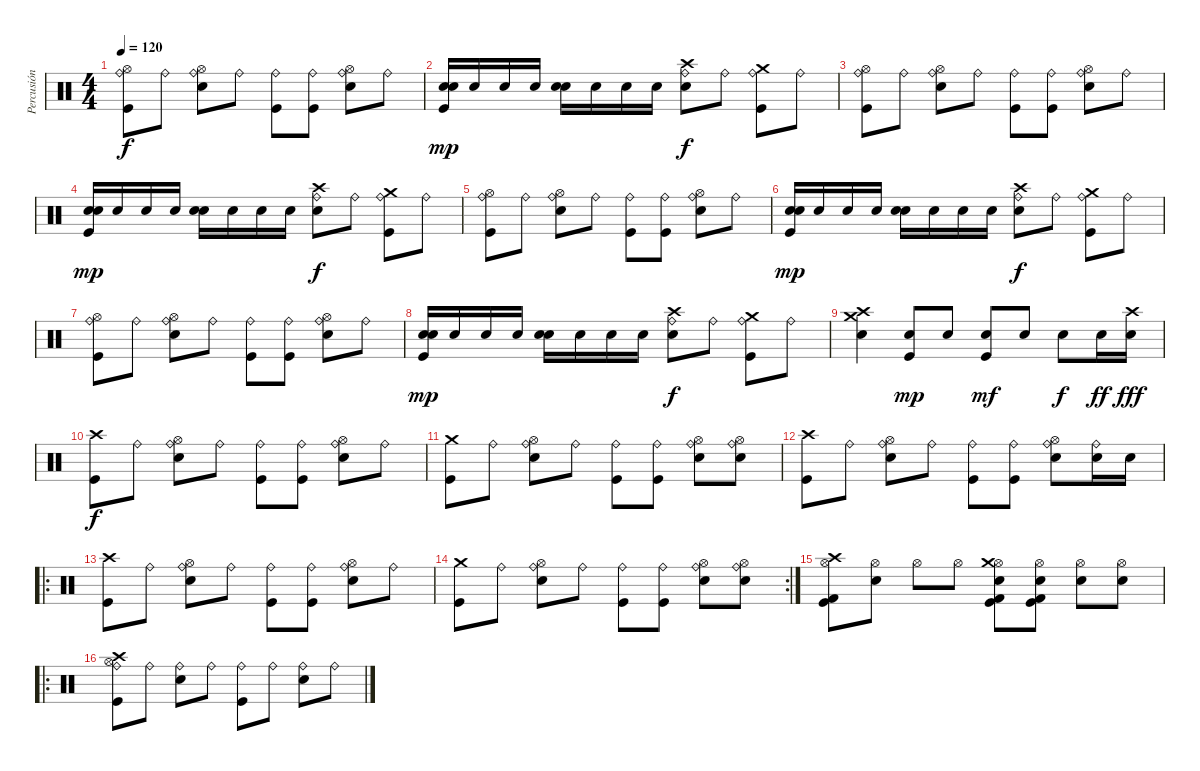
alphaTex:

\track ("Percusión" "Percusión") {instrument percussion}
\staff {score}
\articulation defaults
\ts (4 4)
\tempo 120
\clef neutral
\ks c
("Ride (bell)" "Hi-Hat (open)" "Kick (hit)").8{dy f} "Ride (bell)".8 ("Ride (bell)" "Hi-Hat (open)" "Snare (hit) 2").8 "Ride (bell)".8 ("Ride (bell)" "Kick (hit)").8 ("Ride (bell)" "Kick (hit)").8 ("Ride (bell)" "Hi-Hat (open)" "Snare (hit) 2").8 "Ride (bell)".8 |
("Snare (hit) 2" "Electric Snare (hit)" "Kick (hit)").16{dy mp} "Snare (hit) 2".16 "Snare (hit) 2".16 "Snare (hit) 2".16 ("Snare (hit) 2" "Electric Snare (hit)").16 "Snare (hit) 2".16 "Snare (hit) 2".16 "Snare (hit) 2".16 ("Ride (bell)" "Snare (hit) 2" "Crash high (hit)").8{dy f} "Ride (bell)".8 ("Ride (bell)" "Crash medium (hit)" "Kick (hit)").8 "Ride (bell)".8 |
("Ride (bell)" "Hi-Hat (open)" "Kick (hit)").8 "Ride (bell)".8 ("Ride (bell)" "Hi-Hat (open)" "Snare (hit) 2").8 "Ride (bell)".8 ("Ride (bell)" "Kick (hit)").8 ("Ride (bell)" "Kick (hit)").8 ("Ride (bell)" "Hi-Hat (open)" "Snare (hit) 2").8 "Ride (bell)".8 |
("Snare (hit) 2" "Electric Snare (hit)" "Kick (hit)").16{dy mp} "Snare (hit) 2".16 "Snare (hit) 2".16 "Snare (hit) 2".16 ("Snare (hit) 2" "Electric Snare (hit)").16 "Snare (hit) 2".16 "Snare (hit) 2".16 "Snare (hit) 2".16 ("Ride (bell)" "Snare (hit) 2" "Crash high (hit)").8{dy f} "Ride (bell)".8 ("Ride (bell)" "Crash medium (hit)" "Kick (hit)").8 "Ride (bell)".8 |
("Ride (bell)" "Hi-Hat (open)" "Kick (hit)").8 "Ride (bell)".8 ("Ride (bell)" "Hi-Hat (open)" "Snare (hit) 2").8 "Ride (bell)".8 ("Ride (bell)" "Kick (hit)").8 ("Ride (bell)" "Kick (hit)").8 ("Ride (bell)" "Hi-Hat (open)" "Snare (hit) 2").8 "Ride (bell)".8 |
("Snare (hit) 2" "Electric Snare (hit)" "Kick (hit)").16{dy mp} "Snare (hit) 2".16 "Snare (hit) 2".16 "Snare (hit) 2".16 ("Snare (hit) 2" "Electric Snare (hit)").16 "Snare (hit) 2".16 "Snare (hit) 2".16 "Snare (hit) 2".16 ("Ride (bell)" "Snare (hit) 2" "Crash high (hit)").8{dy f} "Ride (bell)".8 ("Ride (bell)" "Crash medium (hit)" "Kick (hit)").8 "Ride (bell)".8 |
("Ride (bell)" "Hi-Hat (open)" "Kick (hit)").8 "Ride (bell)".8 ("Ride (bell)" "Hi-Hat (open)" "Snare (hit) 2").8 "Ride (bell)".8 ("Ride (bell)" "Kick (hit)").8 ("Ride (bell)" "Kick (hit)").8 ("Ride (bell)" "Hi-Hat (open)" "Snare (hit) 2").8 "Ride (bell)".8 |
("Snare (hit) 2" "Electric Snare (hit)" "Kick (hit)").16{dy mp} "Snare (hit) 2".16 "Snare (hit) 2".16 "Snare (hit) 2".16 ("Snare (hit) 2" "Electric Snare (hit)").16 "Snare (hit) 2".16 "Snare (hit) 2".16 "Snare (hit) 2".16 ("Ride (bell)" "Snare (hit) 2" "Crash high (hit)").8{dy f} "Ride (bell)".8 ("Ride (bell)" "Crash medium (hit)" "Kick (hit)").8 "Ride (bell)".8 |
("Snare (hit) 2" "Crash medium (hit)" "Crash high (hit)").4 ("Snare (hit) 2" "Kick (hit)").8{dy mp} "Snare (hit) 2".8 ("Snare (hit) 2" "Kick (hit)").8{dy mf} "Snare (hit) 2".8 "Snare (hit) 2".8{dy f} "Snare (hit) 2".16{dy ff} ("Snare (hit) 2" "Crash high (hit)").16{dy fff} |
("Crash high (hit)" "Kick (hit)").8{dy f} "Ride (bell)".8 ("Ride (bell)" "Hi-Hat (open)" "Snare (hit) 2").8 "Ride (bell)".8 ("Ride (bell)" "Kick (hit)").8 ("Ride (bell)" "Kick (hit)").8 ("Ride (bell)" "Hi-Hat (open)" "Snare (hit) 2").8 "Ride (bell)".8 |
("Crash medium (hit)" "Kick (hit)").8 "Ride (bell)".8 ("Ride (bell)" "Hi-Hat (open)" "Snare (hit) 2").8 "Ride (bell)".8 ("Ride (bell)" "Kick (hit)").8 ("Ride (bell)" "Kick (hit)").8 ("Ride (bell)" "Hi-Hat (open)" "Snare (hit) 2").8 ("Ride (bell)" "Hi-Hat (open)" "Snare (hit) 2").8 |
("Crash high (hit)" "Kick (hit)").8 "Ride (bell)".8 ("Ride (bell)" "Hi-Hat (open)" "Snare (hit) 2").8 "Ride (bell)".8 ("Ride (bell)" "Kick (hit)").8 ("Ride (bell)" "Kick (hit)").8 ("Ride (bell)" "Hi-Hat (open)" "Snare (hit) 2").8 ("Ride (bell)" "Snare (hit) 2").16 "Snare (hit) 2".16 |
\ro
("Crash high (hit)" "Kick (hit)").8 "Ride (bell)".8 ("Ride (bell)" "Hi-Hat (open)" "Snare (hit) 2").8 "Ride (bell)".8 ("Ride (bell)" "Kick (hit)").8 ("Ride (bell)" "Kick (hit)").8 ("Ride (bell)" "Hi-Hat (open)" "Snare (hit) 2").8 "Ride (bell)".8 |
\rc 2
("Crash medium (hit)" "Kick (hit)").8 "Ride (bell)".8 ("Ride (bell)" "Hi-Hat (open)" "Snare (hit) 2").8 "Ride (bell)".8 ("Ride (bell)" "Kick (hit)").8 ("Ride (bell)" "Kick (hit)").8 ("Ride (bell)" "Hi-Hat (open)" "Snare (hit) 2").8 ("Ride (bell)" "Hi-Hat (open)" "Snare (hit) 2").8 |
("Hi-Hat (open)" "Crash high (hit)" "Kick (hit)" "Kick (hit) 2").8 ("Hi-Hat (open)" "Snare (hit) 2").8 "Hi-Hat (open)".8 "Hi-Hat (open)".8 ("Hi-Hat (open)" "Snare (hit) 2" "Crash medium (hit)" "Kick (hit)" "Kick (hit) 2").8 ("Hi-Hat (open)" "Snare (hit) 2" "Kick (hit)" "Kick (hit) 2").8 ("Hi-Hat (open)" "Snare (hit) 2").8 ("Hi-Hat (open)" "Snare (hit) 2").8 |
\ro
("Ride (bell)" "Hi-Hat (open)" "Crash high (hit)" "Kick (hit)").8 "Ride (bell)".8 ("Ride (bell)" "Snare (hit) 2").8 "Ride (bell)".8 ("Ride (bell)" "Kick (hit)").8 "Ride (bell)".8 ("Ride (bell)" "Snare (hit) 2").8 "Ride (bell)".8
